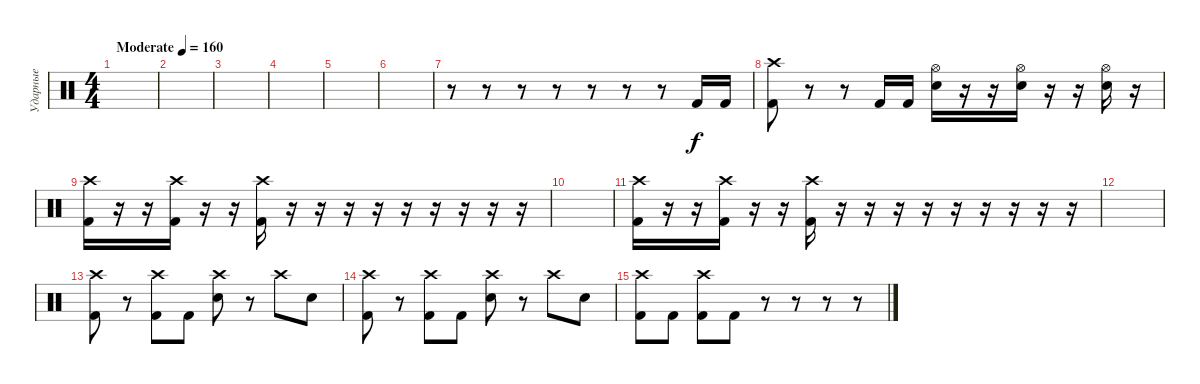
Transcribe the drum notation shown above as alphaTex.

\track ("Ударные" "Ударные") {instrument percussion}
\staff {score}
\articulation defaults
\ts (4 4)
\tempo (160 "Moderate")
\clef neutral
\ks c
|
|
|
|
|
|
r.8 r.8 r.8 r.8 r.8 r.8 r.8 "Kick (hit) 2".16 "Kick (hit) 2".16 |
("Crash high (hit)" "Kick (hit) 2").8 r.8 r.8 "Kick (hit) 2".16 "Kick (hit) 2".16 ("Hi-Hat (open)" "Snare (hit) 2").16 r.16 r.16 ("Hi-Hat (open)" "Snare (hit) 2").16 r.16 r.16 ("Hi-Hat (open)" "Snare (hit) 2").16 r.16 |
("Crash high (hit)" "Kick (hit) 2").16 r.16 r.16 ("Crash high (hit)" "Kick (hit) 2").16 r.16 r.16 ("Crash high (hit)" "Kick (hit) 2").16 r.16 r.16 r.16 r.16 r.16 r.16 r.16 r.16 r.16 |
|
("Crash high (hit)" "Kick (hit) 2").16 r.16 r.16 ("Crash high (hit)" "Kick (hit) 2").16 r.16 r.16 ("Crash high (hit)" "Kick (hit) 2").16 r.16 r.16 r.16 r.16 r.16 r.16 r.16 r.16 r.16 |
|
("Crash high (hit)" "Kick (hit) 2").8 r.8 ("Crash high (hit)" "Kick (hit) 2").8 "Kick (hit) 2".8 ("Crash high (hit)" "Snare (hit) 2").8 r.8 "Crash high (hit)".8 "Snare (hit) 2".8 |
("Crash high (hit)" "Kick (hit) 2").8 r.8 ("Crash high (hit)" "Kick (hit) 2").8 "Kick (hit) 2".8 ("Crash high (hit)" "Snare (hit) 2").8 r.8 "Crash high (hit)".8 "Snare (hit) 2".8 |
("Crash high (hit)" "Kick (hit) 2").8 "Kick (hit) 2".8 ("Crash high (hit)" "Kick (hit) 2").8 "Kick (hit) 2".8 r.8 r.8 r.8 r.8
